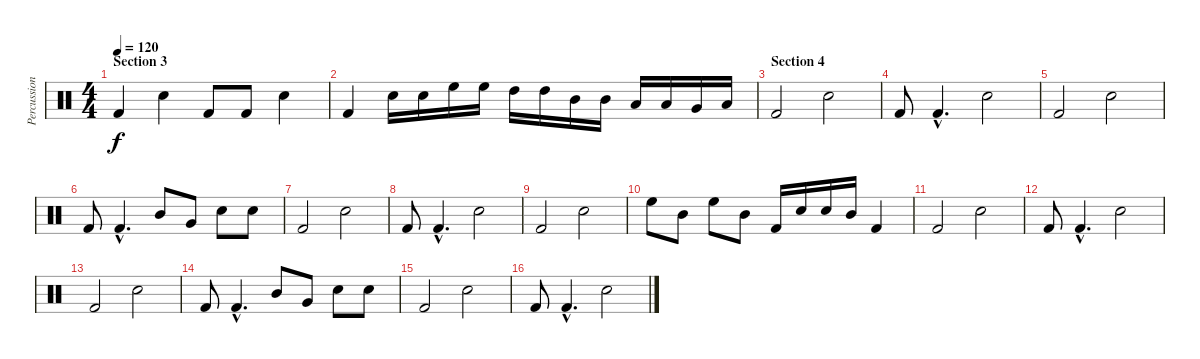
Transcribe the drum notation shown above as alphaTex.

\track ("Percussions" "Percussion") {instrument percussion}
\staff {score}
\articulation defaults
\ts (4 4)
\section ("" "Section 3")
\tempo 120
\clef neutral
\ks c "Kick (hit) 2".4{dy f} "Snare (hit) 2".4 "Kick (hit) 2".8 "Kick (hit) 2".8 "Electric Snare (hit)".4
|
"Kick (hit) 2".4 "Snare (hit) 2".16 "Snare (hit) 2".16 "High Floor Tom (hit)".16 "High Floor Tom (hit)".16 "High Tom (hit)".16 "High Tom (hit)".16 "Mid Tom (hit)".16 "Mid Tom (hit)".16 "Low Tom (hit)".16 "Low Tom (hit)".16 "Very Low Tom (hit)".16 "Low Floor Tom (hit)".16 |
\section ("" "Section 4")
"Kick (hit) 2".2 "Snare (hit) 2".2 |
"Kick (hit) 2".8 "Kick (hit) 2"{hac}.4{d} "Electric Snare (hit)".2 |
"Kick (hit) 2".2 "Snare (hit) 2".2 |
"Kick (hit) 2".8 "Kick (hit) 2"{hac}.4{d} "Mid Tom (hit)".8 "Very Low Tom (hit)".8 "Electric Snare (hit)".8 "Electric Snare (hit)".8 |
"Kick (hit) 2".2 "Snare (hit) 2".2 |
"Kick (hit) 2".8 "Kick (hit) 2"{hac}.4{d} "Electric Snare (hit)".2 |
"Kick (hit) 2".2 "Snare (hit) 2".2 |
"High Floor Tom (hit)".8 "Mid Tom (hit)".8 "High Floor Tom (hit)".8 "Mid Tom (hit)".8 "Kick (hit) 2".16 "Electric Snare (hit)".16 "Electric Snare (hit)".16 "Mid Tom (hit)".16 "Kick (hit) 2".4 |
"Kick (hit) 2".2 "Snare (hit) 2".2 |
"Kick (hit) 2".8 "Kick (hit) 2"{hac}.4{d} "Electric Snare (hit)".2 |
"Kick (hit) 2".2 "Snare (hit) 2".2 |
"Kick (hit) 2".8 "Kick (hit) 2"{hac}.4{d} "Mid Tom (hit)".8 "Very Low Tom (hit)".8 "Electric Snare (hit)".8 "Electric Snare (hit)".8 |
"Kick (hit) 2".2 "Snare (hit) 2".2 |
"Kick (hit) 2".8 "Kick (hit) 2"{hac}.4{d} "Electric Snare (hit)".2
